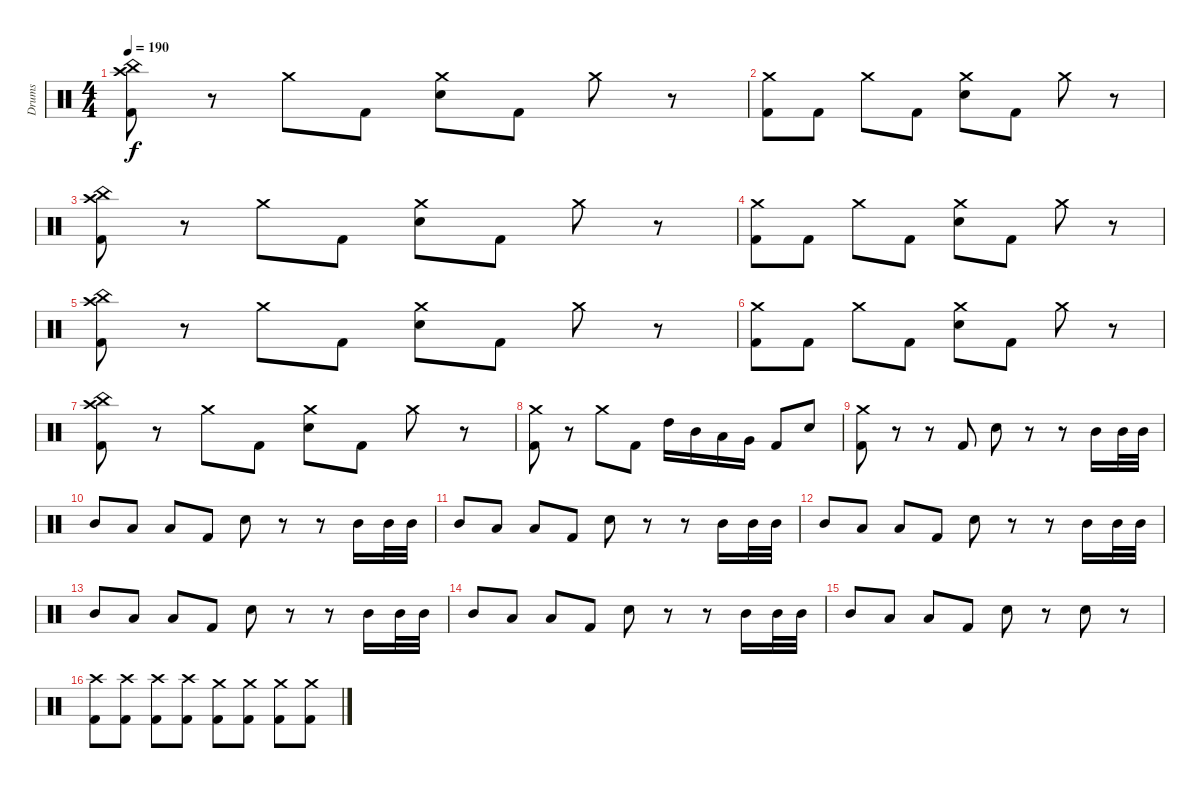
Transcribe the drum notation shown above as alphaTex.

\track ("Drums" "Drums") {instrument percussion}
\staff {score}
\articulation defaults
\ts (4 4)
\tempo 190
\clef neutral
\ks c
("Crash high (hit)" "China (hit)" "Kick (hit) 2").8{dy f} r.8 "Crash medium (hit)".8 "Kick (hit) 2".8 ("Crash medium (hit)" "Electric Snare (hit)").8 "Kick (hit) 2".8 "Crash medium (hit)".8 r.8 |
("Crash medium (hit)" "Kick (hit) 2").8 "Kick (hit) 2".8 "Crash medium (hit)".8 "Kick (hit) 2".8 ("Crash medium (hit)" "Electric Snare (hit)").8 "Kick (hit) 2".8 "Crash medium (hit)".8 r.8 |
("Crash high (hit)" "China (hit)" "Kick (hit) 2").8 r.8 "Crash medium (hit)".8 "Kick (hit) 2".8 ("Crash medium (hit)" "Electric Snare (hit)").8 "Kick (hit) 2".8 "Crash medium (hit)".8 r.8 |
("Crash medium (hit)" "Kick (hit) 2").8 "Kick (hit) 2".8 "Crash medium (hit)".8 "Kick (hit) 2".8 ("Crash medium (hit)" "Electric Snare (hit)").8 "Kick (hit) 2".8 "Crash medium (hit)".8 r.8 |
("Crash high (hit)" "China (hit)" "Kick (hit) 2").8 r.8 "Crash medium (hit)".8 "Kick (hit) 2".8 ("Crash medium (hit)" "Electric Snare (hit)").8 "Kick (hit) 2".8 "Crash medium (hit)".8 r.8 |
("Crash medium (hit)" "Kick (hit) 2").8 "Kick (hit) 2".8 "Crash medium (hit)".8 "Kick (hit) 2".8 ("Crash medium (hit)" "Electric Snare (hit)").8 "Kick (hit) 2".8 "Crash medium (hit)".8 r.8 |
("Crash high (hit)" "China (hit)" "Kick (hit) 2").8 r.8 "Crash medium (hit)".8 "Kick (hit) 2".8 ("Crash medium (hit)" "Electric Snare (hit)").8 "Kick (hit) 2".8 "Crash medium (hit)".8 r.8 |
("Crash medium (hit)" "Kick (hit) 2").8 r.8 "Crash medium (hit)".8 "Kick (hit) 2".8 "High Tom (hit)".16 "Mid Tom (hit)".16 "Low Tom (hit)".16 "Very Low Tom (hit)".16 "Kick (hit) 2".8 "Electric Snare (hit)".8 |
("Crash medium (hit)" "Kick (hit) 2").8 r.8 r.8 "Kick (hit) 2".8 "Electric Snare (hit)".8 r.8 r.8 "Mid Tom (hit)".16 "Mid Tom (hit)".32 "Mid Tom (hit)".32 |
"Mid Tom (hit)".8 "Low Tom (hit)".8 "Low Floor Tom (hit)".8 "Kick (hit) 2".8 "Electric Snare (hit)".8 r.8 r.8 "Mid Tom (hit)".16 "Mid Tom (hit)".32 "Mid Tom (hit)".32 |
"Mid Tom (hit)".8 "Low Tom (hit)".8 "Low Floor Tom (hit)".8 "Kick (hit) 2".8 "Electric Snare (hit)".8 r.8 r.8 "Mid Tom (hit)".16 "Mid Tom (hit)".32 "Mid Tom (hit)".32 |
"Mid Tom (hit)".8 "Low Tom (hit)".8 "Low Floor Tom (hit)".8 "Kick (hit) 2".8 "Electric Snare (hit)".8 r.8 r.8 "Mid Tom (hit)".16 "Mid Tom (hit)".32 "Mid Tom (hit)".32 |
"Mid Tom (hit)".8 "Low Tom (hit)".8 "Low Floor Tom (hit)".8 "Kick (hit) 2".8 "Electric Snare (hit)".8 r.8 r.8 "Mid Tom (hit)".16 "Mid Tom (hit)".32 "Mid Tom (hit)".32 |
"Mid Tom (hit)".8 "Low Tom (hit)".8 "Low Floor Tom (hit)".8 "Kick (hit) 2".8 "Electric Snare (hit)".8 r.8 r.8 "Mid Tom (hit)".16 "Mid Tom (hit)".32 "Mid Tom (hit)".32 |
"Mid Tom (hit)".8 "Low Tom (hit)".8 "Low Floor Tom (hit)".8 "Kick (hit) 2".8 "Electric Snare (hit)".8 r.8 "Electric Snare (hit)".8 r.8 |
("Crash high (hit)" "Kick (hit) 2").8 ("Crash high (hit)" "Kick (hit) 2").8 ("Crash high (hit)" "Kick (hit) 2").8 ("Crash high (hit)" "Kick (hit) 2").8 ("Crash medium (hit)" "Kick (hit) 2").8 ("Crash medium (hit)" "Kick (hit) 2").8 ("Crash medium (hit)" "Kick (hit) 2").8 ("Crash medium (hit)" "Kick (hit) 2").8
